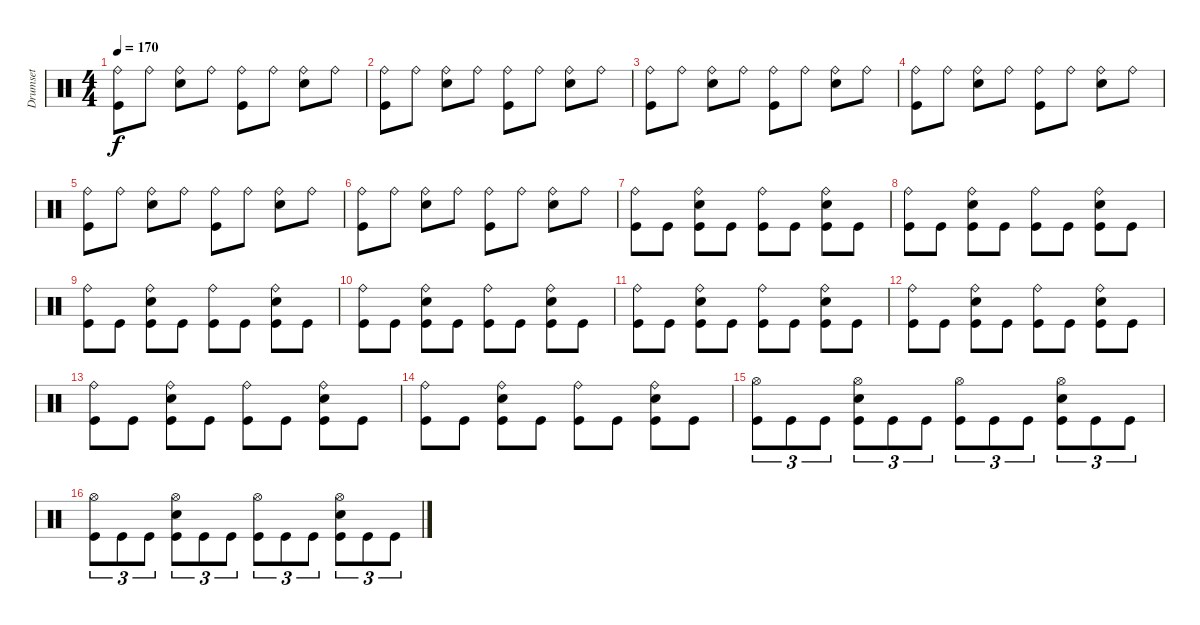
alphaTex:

\track ("Drumset" "Drumset") {instrument percussion}
\staff {score}
\articulation defaults
\ts (4 4)
\tempo 170
\clef neutral
\ks c
("Ride (bell)" "Kick (hit)").8{dy f} "Ride (bell)".8 ("Ride (bell)" "Snare (hit) 2").8 "Ride (bell)".8 ("Ride (bell)" "Kick (hit)").8 "Ride (bell)".8 ("Ride (bell)" "Snare (hit) 2").8 "Ride (bell)".8 |
("Ride (bell)" "Kick (hit)").8 "Ride (bell)".8 ("Ride (bell)" "Snare (hit) 2").8 "Ride (bell)".8 ("Ride (bell)" "Kick (hit)").8 "Ride (bell)".8 ("Ride (bell)" "Snare (hit) 2").8 "Ride (bell)".8 |
("Ride (bell)" "Kick (hit)").8 "Ride (bell)".8 ("Ride (bell)" "Snare (hit) 2").8 "Ride (bell)".8 ("Ride (bell)" "Kick (hit)").8 "Ride (bell)".8 ("Ride (bell)" "Snare (hit) 2").8 "Ride (bell)".8 |
("Ride (bell)" "Kick (hit)").8 "Ride (bell)".8 ("Ride (bell)" "Snare (hit) 2").8 "Ride (bell)".8 ("Ride (bell)" "Kick (hit)").8 "Ride (bell)".8 ("Ride (bell)" "Snare (hit) 2").8 "Ride (bell)".8 |
("Ride (bell)" "Kick (hit)").8 "Ride (bell)".8 ("Ride (bell)" "Snare (hit) 2").8 "Ride (bell)".8 ("Ride (bell)" "Kick (hit)").8 "Ride (bell)".8 ("Ride (bell)" "Snare (hit) 2").8 "Ride (bell)".8 |
("Ride (bell)" "Kick (hit)").8 "Ride (bell)".8 ("Ride (bell)" "Snare (hit) 2").8 "Ride (bell)".8 ("Ride (bell)" "Kick (hit)").8 "Ride (bell)".8 ("Ride (bell)" "Snare (hit) 2").8 "Ride (bell)".8 |
("Ride (bell)" "Kick (hit)").8 "Kick (hit)".8 ("Ride (bell)" "Snare (hit) 2" "Kick (hit)").8 "Kick (hit)".8 ("Ride (bell)" "Kick (hit)").8 "Kick (hit)".8 ("Ride (bell)" "Snare (hit) 2" "Kick (hit)").8 "Kick (hit)".8 |
("Ride (bell)" "Kick (hit)").8 "Kick (hit)".8 ("Ride (bell)" "Snare (hit) 2" "Kick (hit)").8 "Kick (hit)".8 ("Ride (bell)" "Kick (hit)").8 "Kick (hit)".8 ("Ride (bell)" "Snare (hit) 2" "Kick (hit)").8 "Kick (hit)".8 |
("Ride (bell)" "Kick (hit)").8 "Kick (hit)".8 ("Ride (bell)" "Snare (hit) 2" "Kick (hit)").8 "Kick (hit)".8 ("Ride (bell)" "Kick (hit)").8 "Kick (hit)".8 ("Ride (bell)" "Snare (hit) 2" "Kick (hit)").8 "Kick (hit)".8 |
("Ride (bell)" "Kick (hit)").8 "Kick (hit)".8 ("Ride (bell)" "Snare (hit) 2" "Kick (hit)").8 "Kick (hit)".8 ("Ride (bell)" "Kick (hit)").8 "Kick (hit)".8 ("Ride (bell)" "Snare (hit) 2" "Kick (hit)").8 "Kick (hit)".8 |
("Ride (bell)" "Kick (hit)").8 "Kick (hit)".8 ("Ride (bell)" "Snare (hit) 2" "Kick (hit)").8 "Kick (hit)".8 ("Ride (bell)" "Kick (hit)").8 "Kick (hit)".8 ("Ride (bell)" "Snare (hit) 2" "Kick (hit)").8 "Kick (hit)".8 |
("Ride (bell)" "Kick (hit)").8 "Kick (hit)".8 ("Ride (bell)" "Snare (hit) 2" "Kick (hit)").8 "Kick (hit)".8 ("Ride (bell)" "Kick (hit)").8 "Kick (hit)".8 ("Ride (bell)" "Snare (hit) 2" "Kick (hit)").8 "Kick (hit)".8 |
("Ride (bell)" "Kick (hit)").8 "Kick (hit)".8 ("Ride (bell)" "Snare (hit) 2" "Kick (hit)").8 "Kick (hit)".8 ("Ride (bell)" "Kick (hit)").8 "Kick (hit)".8 ("Ride (bell)" "Snare (hit) 2" "Kick (hit)").8 "Kick (hit)".8 |
("Ride (bell)" "Kick (hit)").8 "Kick (hit)".8 ("Ride (bell)" "Snare (hit) 2" "Kick (hit)").8 "Kick (hit)".8 ("Ride (bell)" "Kick (hit)").8 "Kick (hit)".8 ("Ride (bell)" "Snare (hit) 2" "Kick (hit)").8 "Kick (hit)".8 |
("Hi-Hat (open)" "Kick (hit)").8{tu (3 2)} "Kick (hit)".8{tu (3 2)} "Kick (hit)".8{tu (3 2)} ("Hi-Hat (open)" "Snare (hit) 2" "Kick (hit)").8{tu (3 2)} "Kick (hit)".8{tu (3 2)} "Kick (hit)".8{tu (3 2)} ("Hi-Hat (open)" "Kick (hit)").8{tu (3 2)} "Kick (hit)".8{tu (3 2)} "Kick (hit)".8{tu (3 2)} ("Hi-Hat (open)" "Snare (hit) 2" "Kick (hit)").8{tu (3 2)} "Kick (hit)".8{tu (3 2)} "Kick (hit)".8{tu (3 2)} |
("Hi-Hat (open)" "Kick (hit)").8{tu (3 2)} "Kick (hit)".8{tu (3 2)} "Kick (hit)".8{tu (3 2)} ("Hi-Hat (open)" "Snare (hit) 2" "Kick (hit)").8{tu (3 2)} "Kick (hit)".8{tu (3 2)} "Kick (hit)".8{tu (3 2)} ("Hi-Hat (open)" "Kick (hit)").8{tu (3 2)} "Kick (hit)".8{tu (3 2)} "Kick (hit)".8{tu (3 2)} ("Hi-Hat (open)" "Snare (hit) 2" "Kick (hit)").8{tu (3 2)} "Kick (hit)".8{tu (3 2)} "Kick (hit)".8{tu (3 2)}
